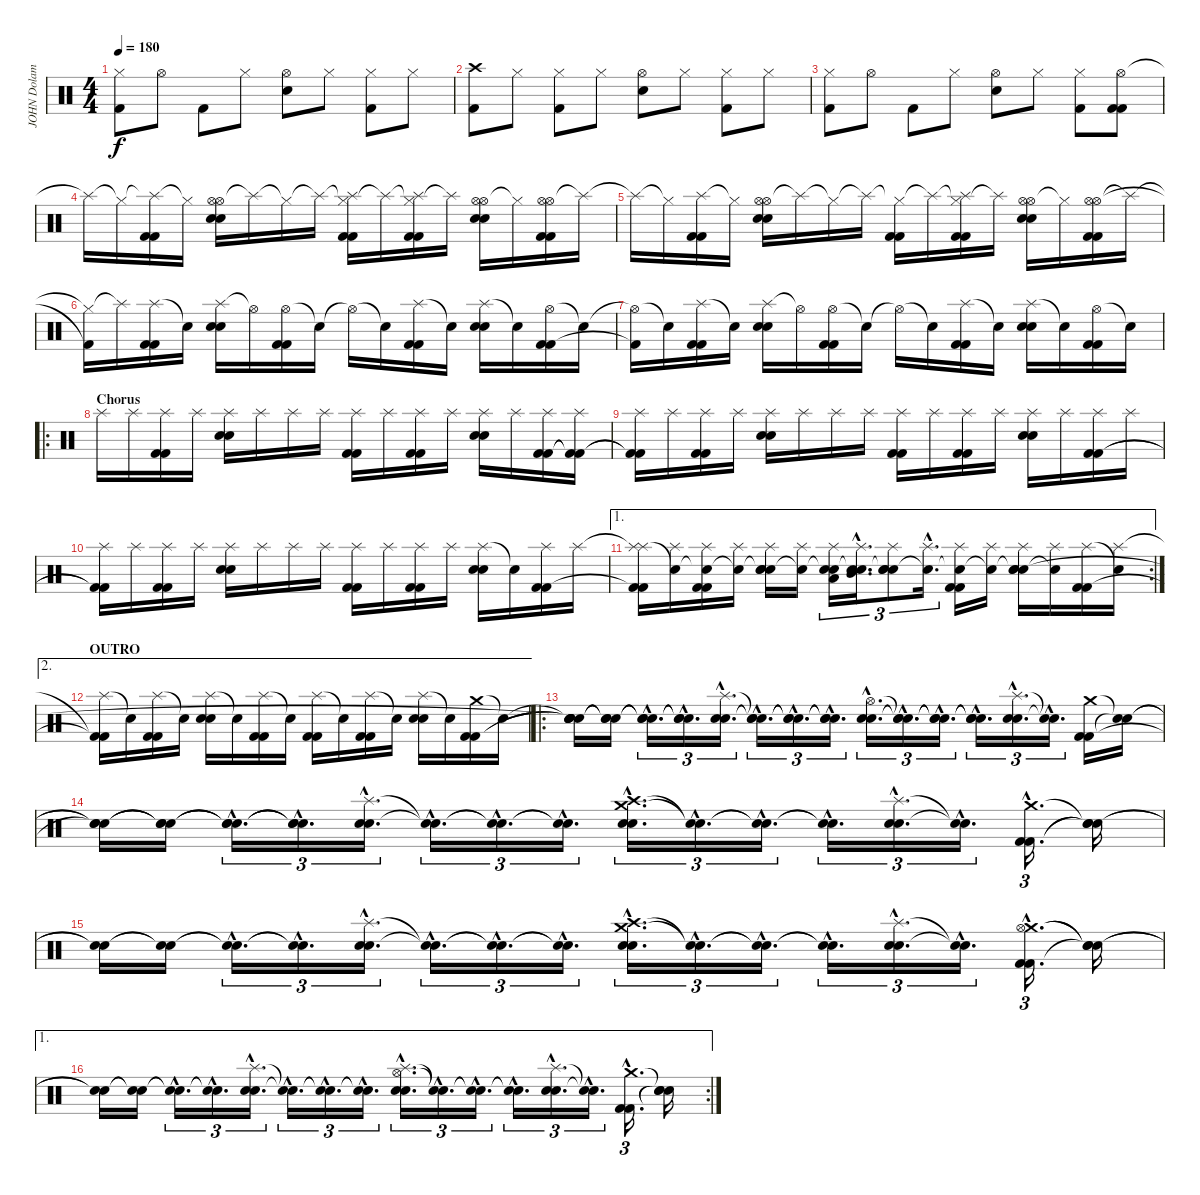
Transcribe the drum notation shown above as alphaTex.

\track ("JOHN Dolamyan" "JOHN Dolam") {instrument percussion}
\staff {score}
\articulation defaults
\ts (4 4)
\tempo 180
\clef neutral
\ks c
("Hi-Hat (closed)" "Kick (hit) 2").8{dy f} "Hi-Hat (open)".8 "Kick (hit) 2".8 "Hi-Hat (closed)".8 ("Hi-Hat (open)" "Electric Snare (hit)").8 "Hi-Hat (closed)".8 ("Hi-Hat (closed)" "Kick (hit) 2").8 "Hi-Hat (closed)".8 |
("Crash high (hit)" "Kick (hit) 2").8 "Hi-Hat (closed)".8 ("Hi-Hat (closed)" "Kick (hit) 2").8 "Hi-Hat (closed)".8 ("Hi-Hat (open)" "Electric Snare (hit)").8 "Hi-Hat (closed)".8 ("Hi-Hat (closed)" "Kick (hit) 2").8 "Hi-Hat (closed)".8 |
("Hi-Hat (closed)" "Kick (hit) 2").8 "Hi-Hat (open)".8 "Kick (hit) 2".8 "Hi-Hat (closed)".8 ("Hi-Hat (open)" "Electric Snare (hit)").8 "Hi-Hat (closed)".8 ("Hi-Hat (closed)" "Kick (hit) 2").8 ("Hi-Hat (open)" "Kick (hit) 2" "Kick (hit) 2").8 |
"Splash (hit)"{t}.16 "Hi-Hat (closed)"{t}.16 ("Splash (hit)"{t} "Kick (hit) 2" "Kick (hit) 2").16 "Hi-Hat (closed)"{t}.16 ("Hi-Hat (open)" "Hi-Hat (open)" "Electric Snare (hit)" "Electric Snare (hit)").16 "Splash (hit)"{t}.16 "Hi-Hat (closed)"{t}.16 "Splash (hit)"{t}.16 ("Hi-Hat (closed)"{t} "Splash (hit)" "Kick (hit) 2" "Kick (hit) 2").16 "Splash (hit)"{t}.16 ("Hi-Hat (closed)"{t} "Splash (hit)" "Kick (hit) 2" "Kick (hit) 2").16 "Splash (hit)"{t}.16 ("Hi-Hat (open)" "Hi-Hat (open)" "Electric Snare (hit)" "Electric Snare (hit)").16 "Hi-Hat (closed)"{t}.16 ("Hi-Hat (open)" "Hi-Hat (open)" "Kick (hit) 2" "Kick (hit) 2").16 "Splash (hit)"{t}.16 |
"Splash (hit)"{t}.16 "Hi-Hat (closed)"{t}.16 ("Splash (hit)" "Kick (hit) 2" "Kick (hit) 2").16 "Hi-Hat (closed)"{t}.16 ("Hi-Hat (open)" "Hi-Hat (open)" "Electric Snare (hit)" "Electric Snare (hit)").16 "Splash (hit)"{t}.16 "Hi-Hat (closed)"{t}.16 "Splash (hit)"{t}.16 ("Hi-Hat (closed)"{t} "Kick (hit) 2" "Kick (hit) 2").16 "Splash (hit)"{t}.16 ("Hi-Hat (closed)"{t} "Splash (hit)" "Kick (hit) 2" "Kick (hit) 2").16 "Splash (hit)"{t}.16 ("Hi-Hat (open)" "Hi-Hat (open)" "Electric Snare (hit)" "Electric Snare (hit)").16 "Hi-Hat (closed)"{t}.16 ("Hi-Hat (open)" "Hi-Hat (open)" "Kick (hit) 2" "Kick (hit) 2").16 "Splash (hit)"{t}.16 |
("Hi-Hat (closed)"{t} "Kick (hit) 2"{t}).16 "Splash (hit)"{t}.16 ("Splash (hit)" "Kick (hit) 2" "Kick (hit) 2").16 "Snare (hit)"{t}.16 ("Splash (hit)" "Electric Snare (hit)" "Electric Snare (hit)").16 "Hi-Hat (open)"{t}.16 ("Hi-Hat (open)" "Kick (hit) 2" "Kick (hit) 2").16 "Snare (hit)"{t}.16 "Hi-Hat (open)"{t}.16 "Snare (hit)"{t}.16 ("Splash (hit)" "Kick (hit) 2" "Kick (hit) 2").16 "Snare (hit)"{t}.16 ("Splash (hit)" "Electric Snare (hit)" "Electric Snare (hit)").16 "Snare (hit)"{t}.16 ("Hi-Hat (open)" "Kick (hit) 2" "Kick (hit) 2").16 "Snare (hit)"{t}.16 |
("Hi-Hat (open)"{t} "Kick (hit) 2"{t}).16 "Snare (hit)"{t}.16 ("Splash (hit)" "Kick (hit) 2" "Kick (hit) 2").16 "Snare (hit)"{t}.16 ("Splash (hit)" "Electric Snare (hit)" "Electric Snare (hit)").16 "Hi-Hat (open)"{t}.16 ("Hi-Hat (open)" "Kick (hit) 2" "Kick (hit) 2").16 "Snare (hit)"{t}.16 "Hi-Hat (open)"{t}.16 "Snare (hit)"{t}.16 ("Splash (hit)" "Kick (hit) 2" "Kick (hit) 2").16 "Snare (hit)"{t}.16 ("Splash (hit)" "Electric Snare (hit)" "Electric Snare (hit)").16 "Snare (hit)"{t}.16 ("Hi-Hat (open)" "Kick (hit) 2" "Kick (hit) 2").16 "Snare (hit)"{t}.16 |
\ro
\section ("" "Chorus")
"Splash (hit)".16 "Splash (hit)".16 ("Splash (hit)" "Kick (hit) 2" "Kick (hit) 2").16 "Splash (hit)".16 ("Splash (hit)" "Electric Snare (hit)" "Electric Snare (hit)").16 "Splash (hit)".16 "Splash (hit)".16 "Splash (hit)".16 ("Splash (hit)" "Kick (hit) 2" "Kick (hit) 2").16 "Splash (hit)".16 ("Splash (hit)" "Kick (hit) 2" "Kick (hit) 2").16 "Splash (hit)".16 ("Splash (hit)" "Electric Snare (hit)" "Electric Snare (hit)").16 "Splash (hit)".16 ("Splash (hit)" "Kick (hit) 2" "Kick (hit) 2").16 ("Splash (hit)" "Kick (hit) 2"{t} "Kick (hit) 2"{t}).16 |
("Splash (hit)" "Kick (hit) 2"{t} "Kick (hit) 2"{t}).16 "Splash (hit)".16 ("Splash (hit)" "Kick (hit) 2" "Kick (hit) 2").16 "Splash (hit)".16 ("Splash (hit)" "Electric Snare (hit)" "Electric Snare (hit)").16 "Splash (hit)".16 "Splash (hit)".16 "Splash (hit)".16 ("Splash (hit)" "Kick (hit) 2" "Kick (hit) 2").16 "Splash (hit)".16 ("Splash (hit)" "Kick (hit) 2" "Kick (hit) 2").16 "Splash (hit)".16 ("Splash (hit)" "Electric Snare (hit)" "Electric Snare (hit)").16 "Splash (hit)".16 ("Splash (hit)" "Kick (hit) 2" "Kick (hit) 2").16 "Splash (hit)".16 |
("Splash (hit)" "Kick (hit) 2"{t} "Kick (hit) 2"{t}).16 "Splash (hit)".16 ("Splash (hit)" "Kick (hit) 2" "Kick (hit) 2").16 "Splash (hit)".16 ("Splash (hit)" "Electric Snare (hit)" "Electric Snare (hit)").16 "Splash (hit)".16 "Splash (hit)".16 "Splash (hit)".16 ("Splash (hit)" "Kick (hit) 2" "Kick (hit) 2").16 "Splash (hit)".16 ("Splash (hit)" "Kick (hit) 2" "Kick (hit) 2").16 "Splash (hit)".16 ("Splash (hit)" "Electric Snare (hit)" "Electric Snare (hit)").16 "Snare (hit)"{t}.16 ("Splash (hit)" "Kick (hit) 2" "Kick (hit) 2").16 "Splash (hit)".16 |
\ae 1
\rc 2
("Splash (hit)"{t} "Splash (hit)" "Kick (hit) 2"{t} "Kick (hit) 2").16 ("Snare (hit)"{t} "Splash (hit)").16 ("Snare (hit)"{t} "Splash (hit)" "Kick (hit) 2" "Kick (hit) 2").16 ("Snare (hit)"{t} "Splash (hit)").16 ("Snare (hit)"{t} "Splash (hit)" "Electric Snare (hit)" "Electric Snare (hit)").16 ("Snare (hit)"{t} "Splash (hit)").16 ("Snare (hit)"{t} "Splash (hit)" "Snare (hit) 2" "Low Tom (hit)").16{tu (3 2)} ("Snare (hit)"{hac t} "Splash (hit)"{hac} "Mid Tom (hit)"{hac} "Electric Snare (hit)"{hac}).16{d tu (3 2)} ("Snare (hit)"{t} "Splash (hit)" "Electric Snare (hit)" "Snare (hit) 2").8{tu (3 2)} ("Snare (hit)"{hac t} "Splash (hit)"{hac}).16{d tu (3 2)} ("Snare (hit)"{t} "Splash (hit)" "Kick (hit) 2" "Kick (hit) 2").16 ("Snare (hit)"{t} "Splash (hit)").16 ("Snare (hit)"{t} "Splash (hit)" "Electric Snare (hit)" "Electric Snare (hit)").16 ("Snare (hit)"{t} "Splash (hit)").16 ("Splash (hit)" "Kick (hit) 2" "Kick (hit) 2").16 ("Snare (hit)"{t} "Splash (hit)").16 |
\ae 2
\section ("" "OUTRO")
("Splash (hit)" "Kick (hit) 2"{t} "Kick (hit) 2"{t}).16 "Snare (hit)"{t}.16 ("Splash (hit)" "Kick (hit) 2" "Kick (hit) 2").16 "Snare (hit)"{t}.16 ("Splash (hit)" "Electric Snare (hit)" "Electric Snare (hit)").16 "Snare (hit)"{t}.16 ("Splash (hit)" "Kick (hit) 2" "Kick (hit) 2").16 "Snare (hit)"{t}.16 ("Splash (hit)" "Kick (hit) 2" "Kick (hit) 2").16 "Snare (hit)"{t}.16 ("Splash (hit)" "Kick (hit) 2" "Kick (hit) 2").16 "Snare (hit)"{t}.16 ("Splash (hit)" "Electric Snare (hit)" "Electric Snare (hit)").16 "Snare (hit)"{t}.16 ("Crash medium (hit)" "Kick (hit) 2" "Kick (hit) 2").16 "Snare (hit)"{t}.16 |
\ro
("Snare (hit)"{t} "Snare (hit)"{t} "Snare (hit)"{t} "Electric Snare (hit)"{t} "Electric Snare (hit)").16 ("Snare (hit)"{t} "Snare (hit)"{t} "Electric Snare (hit)"{t}).16 ("Snare (hit)"{hac t} "Electric Snare (hit)"{hac t} "Electric Snare (hit)"{hac t}).16{d tu (3 2)} ("Snare (hit)"{hac t} "Electric Snare (hit)"{hac t} "Electric Snare (hit)"{hac t}).16{d tu (3 2)} ("Splash (hit)"{hac} "Electric Snare (hit)"{hac} "Electric Snare (hit)"{hac}).16{d tu (3 2)} ("Snare (hit)"{hac t} "Electric Snare (hit)"{hac t} "Electric Snare (hit)"{hac t}).16{d tu (3 2)} ("Snare (hit)"{hac t} "Electric Snare (hit)"{hac t} "Electric Snare (hit)"{hac t}).16{d tu (3 2)} ("Snare (hit)"{hac t} "Electric Snare (hit)"{hac t} "Electric Snare (hit)"{hac t}).16{d tu (3 2)} ("Hi-Hat (open)"{hac} "Electric Snare (hit)"{hac} "Electric Snare (hit)"{hac}).16{d tu (3 2)} ("Snare (hit)"{hac t} "Electric Snare (hit)"{hac t} "Electric Snare (hit)"{hac t}).16{d tu (3 2)} ("Snare (hit)"{hac t} "Electric Snare (hit)"{hac t} "Electric Snare (hit)"{hac t}).16{d tu (3 2)} ("Snare (hit)"{hac t} "Electric Snare (hit)"{hac t} "Electric Snare (hit)"{hac t}).16{d tu (3 2)} ("Splash (hit)"{hac} "Electric Snare (hit)"{hac} "Electric Snare (hit)"{hac}).16{d tu (3 2)} ("Electric Snare (hit)"{hac t} "Electric Snare (hit)"{hac t}).16{d tu (3 2)} ("Crash medium (hit)" "Kick (hit) 2" "Kick (hit) 2").16 ("Electric Snare (hit)"{t} "Electric Snare (hit)"{t}).16 |
("Snare (hit)"{t} "Snare (hit)"{t} "Snare (hit)"{t}).16 ("Snare (hit)"{t} "Snare (hit)"{t} "Snare (hit)"{t}).16 ("Snare (hit)"{hac t} "Electric Snare (hit)"{hac t} "Electric Snare (hit)"{hac t}).16{d tu (3 2)} ("Snare (hit)"{hac t} "Snare (hit)"{hac t} "Snare (hit)"{hac t}).16{d tu (3 2)} ("Splash (hit)"{hac} "Electric Snare (hit)"{hac} "Electric Snare (hit)"{hac}).16{d tu (3 2)} ("Snare (hit)"{hac t} "Snare (hit)"{hac t}).16{d tu (3 2)} ("Snare (hit)"{hac t} "Snare (hit)"{hac t}).16{d tu (3 2)} ("Snare (hit)"{hac t} "Snare (hit)"{hac t}).16{d tu (3 2)} ("Crash high (hit)"{hac} "Crash medium (hit)"{hac} "Electric Snare (hit)"{hac} "Electric Snare (hit)"{hac}).16{d tu (3 2)} ("Snare (hit)"{hac t} "Snare (hit)"{hac t}).16{d tu (3 2)} ("Snare (hit)"{hac t} "Snare (hit)"{hac t}).16{d tu (3 2)} ("Snare (hit)"{hac t} "Snare (hit)"{hac t}).16{d tu (3 2)} ("Splash (hit)"{hac} "Electric Snare (hit)"{hac} "Electric Snare (hit)"{hac}).16{d tu (3 2)} ("Snare (hit)"{hac t} "Snare (hit)"{hac t}).16{d tu (3 2)} ("Crash medium (hit)"{hac} "Kick (hit) 2"{hac} "Kick (hit) 2"{hac}).16{d tu (3 2)} ("Snare (hit)"{t} "Snare (hit)"{t} "Snare (hit)"{t}).16 |
("Snare (hit)"{t} "Snare (hit)"{t}).16 ("Snare (hit)"{t} "Snare (hit)"{t}).16 ("Snare (hit)"{hac t} "Electric Snare (hit)"{hac t}).16{d tu (3 2)} ("Snare (hit)"{hac t} "Snare (hit)"{hac t}).16{d tu (3 2)} ("Splash (hit)"{hac} "Electric Snare (hit)"{hac} "Electric Snare (hit)"{hac}).16{d tu (3 2)} ("Snare (hit)"{hac t} "Snare (hit)"{hac t}).16{d tu (3 2)} ("Snare (hit)"{hac t} "Snare (hit)"{hac t}).16{d tu (3 2)} ("Snare (hit)"{hac t} "Snare (hit)"{hac t}).16{d tu (3 2)} ("Crash high (hit)"{hac} "Crash medium (hit)"{hac} "Electric Snare (hit)"{hac} "Electric Snare (hit)"{hac}).16{d tu (3 2)} ("Snare (hit)"{hac t} "Snare (hit)"{hac t}).16{d tu (3 2)} ("Snare (hit)"{hac t} "Snare (hit)"{hac t}).16{d tu (3 2)} ("Snare (hit)"{hac t} "Snare (hit)"{hac t}).16{d tu (3 2)} ("Splash (hit)"{hac} "Electric Snare (hit)"{hac} "Electric Snare (hit)"{hac}).16{d tu (3 2)} ("Snare (hit)"{hac t} "Snare (hit)"{hac t}).16{d tu (3 2)} ("Crash medium (hit)"{hac} "Hi-Hat (open)"{hac} "Kick (hit) 2"{hac} "Kick (hit) 2"{hac}).16{d tu (3 2)} ("Snare (hit)"{t} "Snare (hit)"{t} "Snare (hit)"{t}).16 |
\ae 1
\rc 2
("Snare (hit)"{t} "Snare (hit)"{t}).16 ("Snare (hit)"{t} "Snare (hit)"{t}).16 ("Snare (hit)"{hac t} "Electric Snare (hit)"{hac t}).16{d tu (3 2)} ("Snare (hit)"{hac t} "Snare (hit)"{hac t}).16{d tu (3 2)} ("Splash (hit)"{hac} "Electric Snare (hit)"{hac} "Electric Snare (hit)"{hac}).16{d tu (3 2)} ("Snare (hit)"{hac t} "Snare (hit)"{hac t}).16{d tu (3 2)} ("Snare (hit)"{hac t} "Snare (hit)"{hac t}).16{d tu (3 2)} ("Snare (hit)"{hac t} "Snare (hit)"{hac t}).16{d tu (3 2)} ("Splash (hit)"{hac} "Hi-Hat (open)"{hac} "Electric Snare (hit)"{hac} "Electric Snare (hit)"{hac}).16{d tu (3 2)} ("Snare (hit)"{hac t} "Snare (hit)"{hac t}).16{d tu (3 2)} ("Snare (hit)"{hac t} "Snare (hit)"{hac t}).16{d tu (3 2)} ("Snare (hit)"{hac t} "Snare (hit)"{hac t}).16{d tu (3 2)} ("Splash (hit)"{hac} "Electric Snare (hit)"{hac} "Electric Snare (hit)"{hac}).16{d tu (3 2)} ("Snare (hit)"{hac t} "Snare (hit)"{hac t}).16{d tu (3 2)} ("Crash medium (hit)"{hac} "Kick (hit) 2"{hac} "Kick (hit) 2"{hac}).16{d tu (3 2)} ("Snare (hit)"{t} "Snare (hit)"{t} "Snare (hit)"{t}).16
